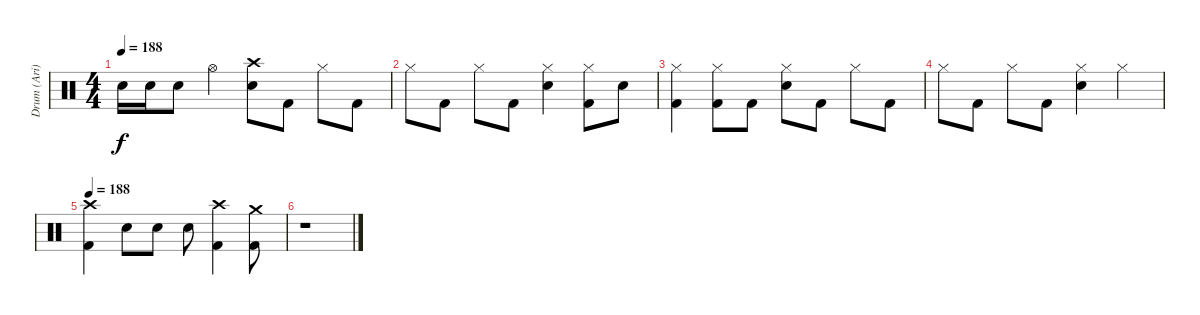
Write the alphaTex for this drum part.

\track ("Drum (Ari)" "Drum (Ari)") {instrument percussion}
\staff {score}
\articulation defaults
\ts (4 4)
\tempo 188
\clef neutral
\ks c "Electric Snare (hit)".16{dy f volume 8} "Electric Snare (hit)".16 "Electric Snare (hit)".8{volume 13} "Hi-Hat (open)".4
("Crash high (hit)" "Electric Snare (hit)").8 "Kick (hit) 2".8 "Hi-Hat (closed)".8 "Kick (hit) 2".8 |
"Hi-Hat (closed)".8 "Kick (hit) 2".8 "Hi-Hat (closed)".8 "Kick (hit) 2".8 ("Hi-Hat (closed)" "Electric Snare (hit)").4 ("Hi-Hat (closed)" "Kick (hit) 2").8 "Electric Snare (hit)".8 |
("Hi-Hat (closed)" "Kick (hit) 2").4 ("Hi-Hat (closed)" "Kick (hit) 2").8 "Kick (hit) 2".8 ("Hi-Hat (closed)" "Electric Snare (hit)").8 "Kick (hit) 2".8 "Hi-Hat (closed)".8 "Kick (hit) 2".8 |
"Hi-Hat (closed)".8 "Kick (hit) 2".8 "Hi-Hat (closed)".8 "Kick (hit) 2".8 ("Hi-Hat (closed)" "Electric Snare (hit)").4 "Hi-Hat (closed)".4 |
\tempo 188
("Crash high (hit)" "Kick (hit) 2").4 "Electric Snare (hit)".8 "Electric Snare (hit)".8 "Electric Snare (hit)".8 ("Crash high (hit)" "Kick (hit) 2").4 ("Crash medium (hit)" "Kick (hit) 2").8 |
r.1
